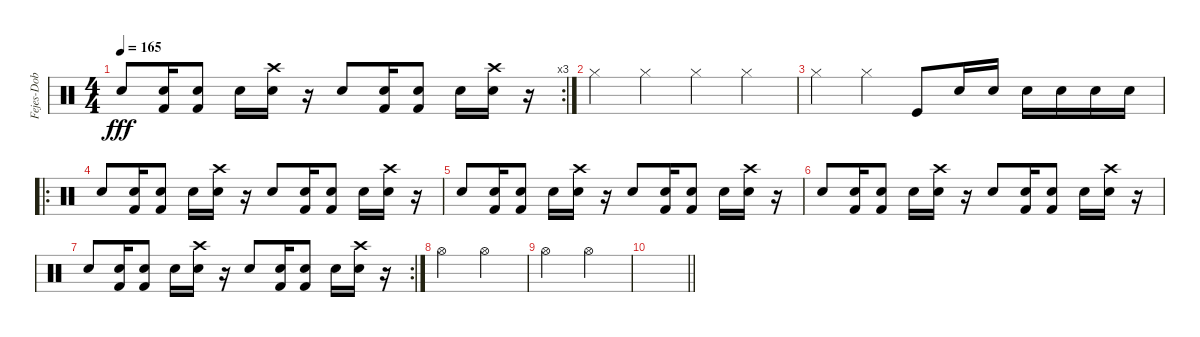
\track ("Fejes-Dob" "Fejes-Dob") {instrument percussion}
\staff {score}
\articulation defaults
\rc 3
\ts (4 4)
\tempo 165
\clef neutral
\ks c "Snare (hit) 2".8{dy fff}
("Kick (hit) 2" "Snare (hit) 2").16 ("Kick (hit) 2" "Snare (hit) 2").8 "Snare (hit) 2".16 ("Crash high (hit)" "Snare (hit) 2").16 r.16 "Snare (hit) 2".8 ("Kick (hit) 2" "Snare (hit) 2").16 ("Kick (hit) 2" "Snare (hit) 2").8 "Snare (hit) 2".16 ("Crash high (hit)" "Snare (hit) 2").16 r.16 |
"Hi-Hat (closed)".4 "Hi-Hat (closed)".4 "Hi-Hat (closed)".4 "Hi-Hat (closed)".4 |
"Hi-Hat (closed)".4 "Hi-Hat (closed)".4 "Kick (hit)".8 "Snare (hit) 2".16 "Electric Snare (hit)".16 "Electric Snare (hit)".16 "Electric Snare (hit)".16 "Electric Snare (hit)".16 "Electric Snare (hit)".16 |
\ro "Snare (hit) 2".8
("Kick (hit) 2" "Snare (hit) 2").16 ("Kick (hit) 2" "Snare (hit) 2").8 "Snare (hit) 2".16 ("Crash high (hit)" "Snare (hit) 2").16 r.16 "Snare (hit) 2".8 ("Kick (hit) 2" "Snare (hit) 2").16 ("Kick (hit) 2" "Snare (hit) 2").8 "Snare (hit) 2".16 ("Crash high (hit)" "Snare (hit) 2").16 r.16 |
"Snare (hit) 2".8 ("Kick (hit) 2" "Snare (hit) 2").16 ("Kick (hit) 2" "Snare (hit) 2").8 "Snare (hit) 2".16 ("Crash high (hit)" "Snare (hit) 2").16 r.16 "Snare (hit) 2".8 ("Kick (hit) 2" "Snare (hit) 2").16 ("Kick (hit) 2" "Snare (hit) 2").8 "Snare (hit) 2".16 ("Crash high (hit)" "Snare (hit) 2").16 r.16 |
"Snare (hit) 2".8 ("Kick (hit) 2" "Snare (hit) 2").16 ("Kick (hit) 2" "Snare (hit) 2").8 "Snare (hit) 2".16 ("Crash high (hit)" "Snare (hit) 2").16 r.16 "Snare (hit) 2".8 ("Kick (hit) 2" "Snare (hit) 2").16 ("Kick (hit) 2" "Snare (hit) 2").8 "Snare (hit) 2".16 ("Crash high (hit)" "Snare (hit) 2").16 r.16 |
\rc 2 "Snare (hit) 2".8
("Kick (hit) 2" "Snare (hit) 2").16 ("Kick (hit) 2" "Snare (hit) 2").8 "Snare (hit) 2".16 ("Crash high (hit)" "Snare (hit) 2").16 r.16 "Snare (hit) 2".8 ("Kick (hit) 2" "Snare (hit) 2").16 ("Kick (hit) 2" "Snare (hit) 2").8 "Snare (hit) 2".16 ("Crash high (hit)" "Snare (hit) 2").16 r.16 |
"Hi-Hat (open)".2 "Hi-Hat (open)".2 |
"Hi-Hat (open)".2 "Hi-Hat (open)".2 |
\barLineRight lightlight
